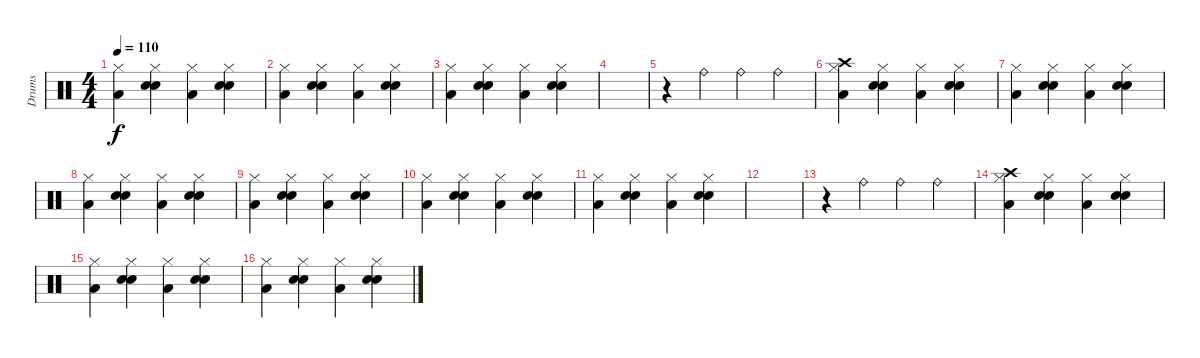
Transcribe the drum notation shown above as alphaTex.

\track ("Drums" "Drums") {instrument percussion}
\staff {score}
\articulation defaults
\ts (4 4)
\tempo 110
\clef neutral
\ks c
("Hi-Hat (closed)" "Low Tom (hit)").4{dy f} ("Hi-Hat (closed)" "Electric Snare (hit)" "Snare (hit) 2").4 ("Hi-Hat (closed)" "Low Tom (hit)").4 ("Hi-Hat (closed)" "Electric Snare (hit)" "Snare (hit) 2").4 |
("Hi-Hat (closed)" "Low Tom (hit)").4 ("Hi-Hat (closed)" "Electric Snare (hit)" "Snare (hit) 2").4 ("Hi-Hat (closed)" "Low Tom (hit)").4 ("Hi-Hat (closed)" "Electric Snare (hit)" "Snare (hit) 2").4 |
("Hi-Hat (closed)" "Low Tom (hit)").4 ("Hi-Hat (closed)" "Electric Snare (hit)" "Snare (hit) 2").4 ("Hi-Hat (closed)" "Low Tom (hit)").4 ("Hi-Hat (closed)" "Electric Snare (hit)" "Snare (hit) 2").4 |
|
r.4 "Ride (bell)".4 "Ride (bell)".4 "Ride (bell)".4 |
("Hi-Hat (closed)" "Low Tom (hit)" "Crash high (hit)").4 ("Hi-Hat (closed)" "Electric Snare (hit)" "Snare (hit) 2").4 ("Hi-Hat (closed)" "Low Tom (hit)").4 ("Hi-Hat (closed)" "Electric Snare (hit)" "Snare (hit) 2").4 |
("Hi-Hat (closed)" "Low Tom (hit)").4 ("Hi-Hat (closed)" "Electric Snare (hit)" "Snare (hit) 2").4 ("Hi-Hat (closed)" "Low Tom (hit)").4 ("Hi-Hat (closed)" "Electric Snare (hit)" "Snare (hit) 2").4 |
("Hi-Hat (closed)" "Low Tom (hit)").4 ("Hi-Hat (closed)" "Electric Snare (hit)" "Snare (hit) 2").4 ("Hi-Hat (closed)" "Low Tom (hit)").4 ("Hi-Hat (closed)" "Electric Snare (hit)" "Snare (hit) 2").4 |
("Hi-Hat (closed)" "Low Tom (hit)").4 ("Hi-Hat (closed)" "Electric Snare (hit)" "Snare (hit) 2").4 ("Hi-Hat (closed)" "Low Tom (hit)").4 ("Hi-Hat (closed)" "Electric Snare (hit)" "Snare (hit) 2").4 |
("Hi-Hat (closed)" "Low Tom (hit)").4 ("Hi-Hat (closed)" "Electric Snare (hit)" "Snare (hit) 2").4 ("Hi-Hat (closed)" "Low Tom (hit)").4 ("Hi-Hat (closed)" "Electric Snare (hit)" "Snare (hit) 2").4 |
("Hi-Hat (closed)" "Low Tom (hit)").4 ("Hi-Hat (closed)" "Electric Snare (hit)" "Snare (hit) 2").4 ("Hi-Hat (closed)" "Low Tom (hit)").4 ("Hi-Hat (closed)" "Electric Snare (hit)" "Snare (hit) 2").4 |
|
r.4 "Ride (bell)".4 "Ride (bell)".4 "Ride (bell)".4 |
("Hi-Hat (closed)" "Low Tom (hit)" "Crash high (hit)").4 ("Hi-Hat (closed)" "Electric Snare (hit)" "Snare (hit) 2").4 ("Hi-Hat (closed)" "Low Tom (hit)").4 ("Hi-Hat (closed)" "Electric Snare (hit)" "Snare (hit) 2").4 |
("Hi-Hat (closed)" "Low Tom (hit)").4 ("Hi-Hat (closed)" "Electric Snare (hit)" "Snare (hit) 2").4 ("Hi-Hat (closed)" "Low Tom (hit)").4 ("Hi-Hat (closed)" "Electric Snare (hit)" "Snare (hit) 2").4 |
("Hi-Hat (closed)" "Low Tom (hit)").4 ("Hi-Hat (closed)" "Electric Snare (hit)" "Snare (hit) 2").4 ("Hi-Hat (closed)" "Low Tom (hit)").4 ("Hi-Hat (closed)" "Electric Snare (hit)" "Snare (hit) 2").4
